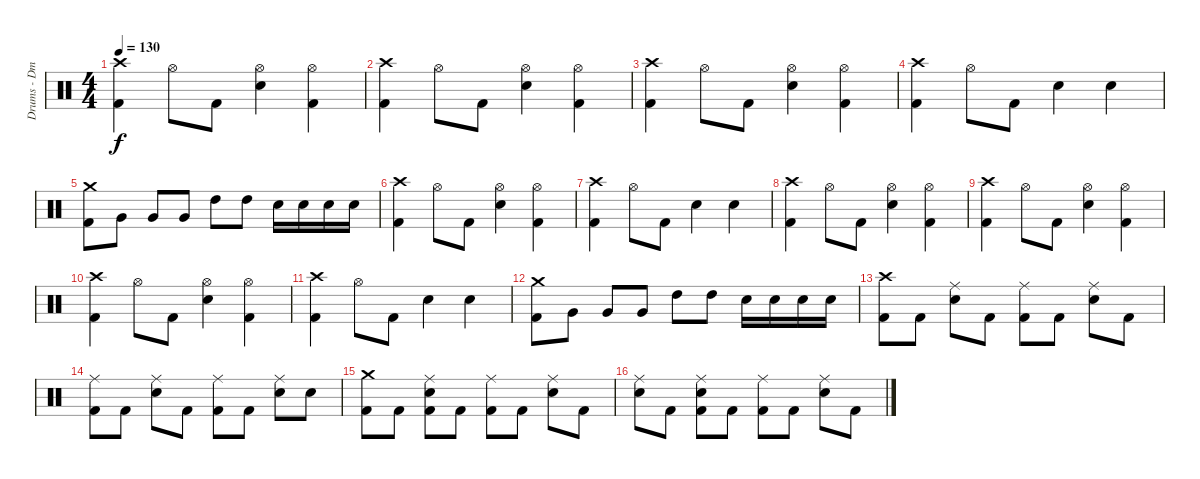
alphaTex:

\track ("Drums - Dmitriy Krivenkov" "Drums - Dm") {instrument percussion}
\staff {score}
\articulation defaults
\ts (4 4)
\tempo 130
\clef neutral
\ks c
("Crash high (hit)" "Kick (hit) 2").4{dy f} "Hi-Hat (open)".8 "Kick (hit) 2".8 ("Hi-Hat (open)" "Electric Snare (hit)").4 ("Kick (hit) 2" "Hi-Hat (open)").4 |
("Crash high (hit)" "Kick (hit) 2").4 "Hi-Hat (open)".8 "Kick (hit) 2".8 ("Hi-Hat (open)" "Electric Snare (hit)").4 ("Kick (hit) 2" "Hi-Hat (open)").4 |
("Crash high (hit)" "Kick (hit) 2").4 "Hi-Hat (open)".8 "Kick (hit) 2".8 ("Hi-Hat (open)" "Electric Snare (hit)").4 ("Kick (hit) 2" "Hi-Hat (open)").4 |
("Crash high (hit)" "Kick (hit) 2").4 "Hi-Hat (open)".8 "Kick (hit) 2".8 "Electric Snare (hit)".4 "Electric Snare (hit)".4 |
("Crash medium (hit)" "Kick (hit) 2").8 "Very Low Tom (hit)".8 "Very Low Tom (hit)".8 "Very Low Tom (hit)".8 "High Tom (hit)".8 "High Tom (hit)".8 "Electric Snare (hit)".16 "Electric Snare (hit)".16 "Electric Snare (hit)".16 "Electric Snare (hit)".16 |
("Crash high (hit)" "Kick (hit) 2").4 "Hi-Hat (open)".8 "Kick (hit) 2".8 ("Hi-Hat (open)" "Electric Snare (hit)").4 ("Kick (hit) 2" "Hi-Hat (open)").4 |
("Crash high (hit)" "Kick (hit) 2").4 "Hi-Hat (open)".8 "Kick (hit) 2".8 "Electric Snare (hit)".4 "Electric Snare (hit)".4 |
("Crash high (hit)" "Kick (hit) 2").4 "Hi-Hat (open)".8 "Kick (hit) 2".8 ("Hi-Hat (open)" "Electric Snare (hit)").4 ("Kick (hit) 2" "Hi-Hat (open)").4 |
("Crash high (hit)" "Kick (hit) 2").4 "Hi-Hat (open)".8 "Kick (hit) 2".8 ("Hi-Hat (open)" "Electric Snare (hit)").4 ("Kick (hit) 2" "Hi-Hat (open)").4 |
("Crash high (hit)" "Kick (hit) 2").4 "Hi-Hat (open)".8 "Kick (hit) 2".8 ("Hi-Hat (open)" "Electric Snare (hit)").4 ("Kick (hit) 2" "Hi-Hat (open)").4 |
("Crash high (hit)" "Kick (hit) 2").4 "Hi-Hat (open)".8 "Kick (hit) 2".8 "Electric Snare (hit)".4 "Electric Snare (hit)".4 |
("Crash medium (hit)" "Kick (hit) 2").8 "Very Low Tom (hit)".8 "Very Low Tom (hit)".8 "Very Low Tom (hit)".8 "High Tom (hit)".8 "High Tom (hit)".8 "Electric Snare (hit)".16 "Electric Snare (hit)".16 "Electric Snare (hit)".16 "Electric Snare (hit)".16 |
("Crash high (hit)" "Kick (hit) 2").8 "Kick (hit) 2".8 ("Ride (middle)" "Electric Snare (hit)").8 "Kick (hit) 2".8 ("Ride (middle)" "Kick (hit) 2").8 "Kick (hit) 2".8 ("Ride (middle)" "Electric Snare (hit)").8 "Kick (hit) 2".8 |
("Kick (hit) 2" "Ride (middle)").8 "Kick (hit) 2".8 ("Ride (middle)" "Electric Snare (hit)").8 "Kick (hit) 2".8 ("Kick (hit) 2" "Ride (middle)").8 "Kick (hit) 2".8 ("Electric Snare (hit)" "Ride (middle)").8 "Electric Snare (hit)".8 |
("Crash medium (hit)" "Kick (hit) 2").8 "Kick (hit) 2".8 ("Ride (middle)" "Kick (hit) 2" "Electric Snare (hit)").8 "Kick (hit) 2".8 ("Kick (hit) 2" "Ride (middle)").8 "Kick (hit) 2".8 ("Ride (middle)" "Electric Snare (hit)").8 "Kick (hit) 2".8 |
("Ride (middle)" "Electric Snare (hit)").8 "Kick (hit) 2".8 ("Ride (middle)" "Electric Snare (hit)" "Kick (hit) 2").8 "Kick (hit) 2".8 ("Ride (middle)" "Kick (hit) 2").8 "Kick (hit) 2".8 ("Ride (middle)" "Electric Snare (hit)").8 "Kick (hit) 2".8
